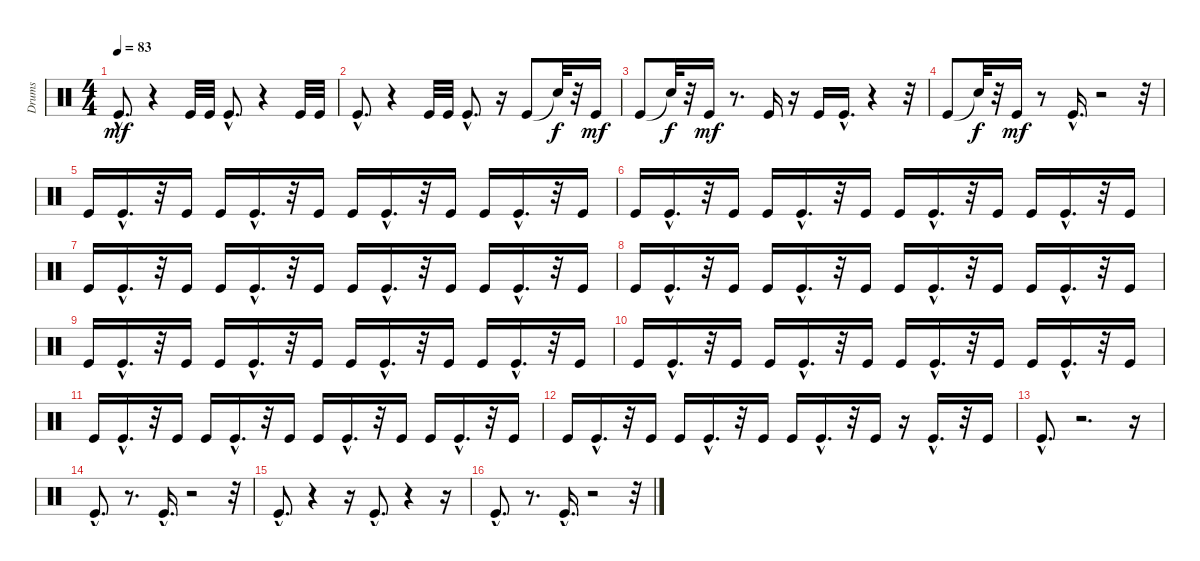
\track ("Drums" "Drums") {instrument percussion}
\staff {score}
\articulation defaults
\ts (4 4)
\tempo 83
\clef neutral
\ks c "Kick (hit)"{hac}.8{d dy mf}
r.4 "Kick (hit)".32 "Kick (hit)".32 "Kick (hit)"{hac}.8{d} r.4 "Kick (hit)".32 "Kick (hit)".32 |
"Kick (hit)"{hac}.8{d} r.4 "Kick (hit)".32 "Kick (hit)".32 "Kick (hit)"{hac}.8{d} r.16 "Kick (hit)".8 "Snare (hit)"{t}.32{dy f} r.32 "Kick (hit)".16{dy mf} |
"Kick (hit)".8 "Snare (hit)"{t}.32{dy f} r.32 "Kick (hit)".16{dy mf} r.8{d} "Kick (hit)".16 r.16 "Kick (hit)".16 "Kick (hit)"{hac}.16{d} r.4 r.32 |
"Kick (hit)".8 "Snare (hit)"{t}.32{dy f} r.32 "Kick (hit)".16{dy mf} r.8 "Kick (hit)"{hac}.16{d} r.2 r.32 |
"Kick (hit)".16 "Kick (hit)"{hac}.16{d} r.32 "Kick (hit)".16 "Kick (hit)".16 "Kick (hit)"{hac}.16{d} r.32 "Kick (hit)".16 "Kick (hit)".16 "Kick (hit)"{hac}.16{d} r.32 "Kick (hit)".16 "Kick (hit)".16 "Kick (hit)"{hac}.16{d} r.32 "Kick (hit)".16 |
"Kick (hit)".16 "Kick (hit)"{hac}.16{d} r.32 "Kick (hit)".16 "Kick (hit)".16 "Kick (hit)"{hac}.16{d} r.32 "Kick (hit)".16 "Kick (hit)".16 "Kick (hit)"{hac}.16{d} r.32 "Kick (hit)".16 "Kick (hit)".16 "Kick (hit)"{hac}.16{d} r.32 "Kick (hit)".16 |
"Kick (hit)".16 "Kick (hit)"{hac}.16{d} r.32 "Kick (hit)".16 "Kick (hit)".16 "Kick (hit)"{hac}.16{d} r.32 "Kick (hit)".16 "Kick (hit)".16 "Kick (hit)"{hac}.16{d} r.32 "Kick (hit)".16 "Kick (hit)".16 "Kick (hit)"{hac}.16{d} r.32 "Kick (hit)".16 |
"Kick (hit)".16 "Kick (hit)"{hac}.16{d} r.32 "Kick (hit)".16 "Kick (hit)".16 "Kick (hit)"{hac}.16{d} r.32 "Kick (hit)".16 "Kick (hit)".16 "Kick (hit)"{hac}.16{d} r.32 "Kick (hit)".16 "Kick (hit)".16 "Kick (hit)"{hac}.16{d} r.32 "Kick (hit)".16 |
"Kick (hit)".16 "Kick (hit)"{hac}.16{d} r.32 "Kick (hit)".16 "Kick (hit)".16 "Kick (hit)"{hac}.16{d} r.32 "Kick (hit)".16 "Kick (hit)".16 "Kick (hit)"{hac}.16{d} r.32 "Kick (hit)".16 "Kick (hit)".16 "Kick (hit)"{hac}.16{d} r.32 "Kick (hit)".16 |
"Kick (hit)".16 "Kick (hit)"{hac}.16{d} r.32 "Kick (hit)".16 "Kick (hit)".16 "Kick (hit)"{hac}.16{d} r.32 "Kick (hit)".16 "Kick (hit)".16 "Kick (hit)"{hac}.16{d} r.32 "Kick (hit)".16 "Kick (hit)".16 "Kick (hit)"{hac}.16{d} r.32 "Kick (hit)".16 |
"Kick (hit)".16 "Kick (hit)"{hac}.16{d} r.32 "Kick (hit)".16 "Kick (hit)".16 "Kick (hit)"{hac}.16{d} r.32 "Kick (hit)".16 "Kick (hit)".16 "Kick (hit)"{hac}.16{d} r.32 "Kick (hit)".16 "Kick (hit)".16 "Kick (hit)"{hac}.16{d} r.32 "Kick (hit)".16 |
"Kick (hit)".16 "Kick (hit)"{hac}.16{d} r.32 "Kick (hit)".16 "Kick (hit)".16 "Kick (hit)"{hac}.16{d} r.32 "Kick (hit)".16 "Kick (hit)".16 "Kick (hit)"{hac}.16{d} r.32 "Kick (hit)".16 r.16 "Kick (hit)"{hac}.16{d} r.32 "Kick (hit)".16 |
"Kick (hit)"{hac}.8{d} r.2{d} r.16 |
"Kick (hit)"{hac}.8{d} r.8{d} "Kick (hit)"{hac}.16{d} r.2 r.32 |
"Kick (hit)"{hac}.8{d} r.4 r.16 "Kick (hit)"{hac}.8{d} r.4 r.16 |
"Kick (hit)"{hac}.8{d} r.8{d} "Kick (hit)"{hac}.16{d} r.2 r.32
